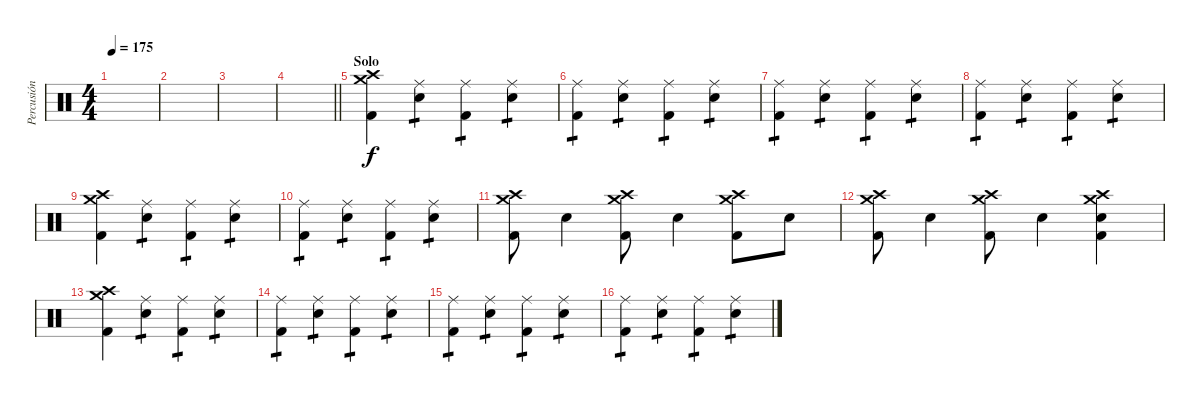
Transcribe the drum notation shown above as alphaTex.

\track ("Percusión" "Percusión") {instrument percussion}
\staff {score}
\articulation defaults
\ts (4 4)
\tempo 175
\clef neutral
\ks c
|
|
|
\barLineRight lightlight
|
\section ("" "Solo")
("Crash high (hit)" "Crash medium (hit)" "Kick (hit) 2").4 ("Ride (middle)" "Electric Snare (hit)").4{tp 1} ("Ride (middle)" "Kick (hit) 2").4{tp 1} ("Ride (middle)" "Electric Snare (hit)").4{tp 1} |
("Ride (middle)" "Kick (hit) 2").4{tp 1} ("Ride (middle)" "Electric Snare (hit)").4{tp 1} ("Ride (middle)" "Kick (hit) 2").4{tp 1} ("Ride (middle)" "Electric Snare (hit)").4{tp 1} |
("Ride (middle)" "Kick (hit) 2").4{tp 1} ("Ride (middle)" "Electric Snare (hit)").4{tp 1} ("Ride (middle)" "Kick (hit) 2").4{tp 1} ("Ride (middle)" "Electric Snare (hit)").4{tp 1} |
("Ride (middle)" "Kick (hit) 2").4{tp 1} ("Ride (middle)" "Electric Snare (hit)").4{tp 1} ("Ride (middle)" "Kick (hit) 2").4{tp 1} ("Ride (middle)" "Electric Snare (hit)").4{tp 1} |
("Crash high (hit)" "Crash medium (hit)" "Kick (hit) 2").4 ("Ride (middle)" "Electric Snare (hit)").4{tp 1} ("Ride (middle)" "Kick (hit) 2").4{tp 1} ("Ride (middle)" "Electric Snare (hit)").4{tp 1} |
("Ride (middle)" "Kick (hit) 2").4{tp 1} ("Ride (middle)" "Electric Snare (hit)").4{tp 1} ("Ride (middle)" "Kick (hit) 2").4{tp 1} ("Ride (middle)" "Electric Snare (hit)").4{tp 1} |
("Crash high (hit)" "Crash medium (hit)" "Kick (hit) 2").8 "Electric Snare (hit)".4 ("Crash high (hit)" "Crash medium (hit)" "Kick (hit) 2").8 "Electric Snare (hit)".4 ("Crash high (hit)" "Crash medium (hit)" "Kick (hit) 2").8 "Electric Snare (hit)".8 |
("Crash high (hit)" "Crash medium (hit)" "Kick (hit) 2").8 "Electric Snare (hit)".4 ("Crash high (hit)" "Crash medium (hit)" "Kick (hit) 2").8 "Electric Snare (hit)".4 ("Crash high (hit)" "Crash medium (hit)" "Electric Snare (hit)" "Kick (hit) 2").4 |
("Crash high (hit)" "Crash medium (hit)" "Kick (hit) 2").4 ("Ride (middle)" "Electric Snare (hit)").4{tp 1} ("Ride (middle)" "Kick (hit) 2").4{tp 1} ("Ride (middle)" "Electric Snare (hit)").4{tp 1} |
("Ride (middle)" "Kick (hit) 2").4{tp 1} ("Ride (middle)" "Electric Snare (hit)").4{tp 1} ("Ride (middle)" "Kick (hit) 2").4{tp 1} ("Ride (middle)" "Electric Snare (hit)").4{tp 1} |
("Ride (middle)" "Kick (hit) 2").4{tp 1} ("Ride (middle)" "Electric Snare (hit)").4{tp 1} ("Ride (middle)" "Kick (hit) 2").4{tp 1} ("Ride (middle)" "Electric Snare (hit)").4{tp 1} |
("Ride (middle)" "Kick (hit) 2").4{tp 1} ("Ride (middle)" "Electric Snare (hit)").4{tp 1} ("Ride (middle)" "Kick (hit) 2").4{tp 1} ("Ride (middle)" "Electric Snare (hit)").4{tp 1}
